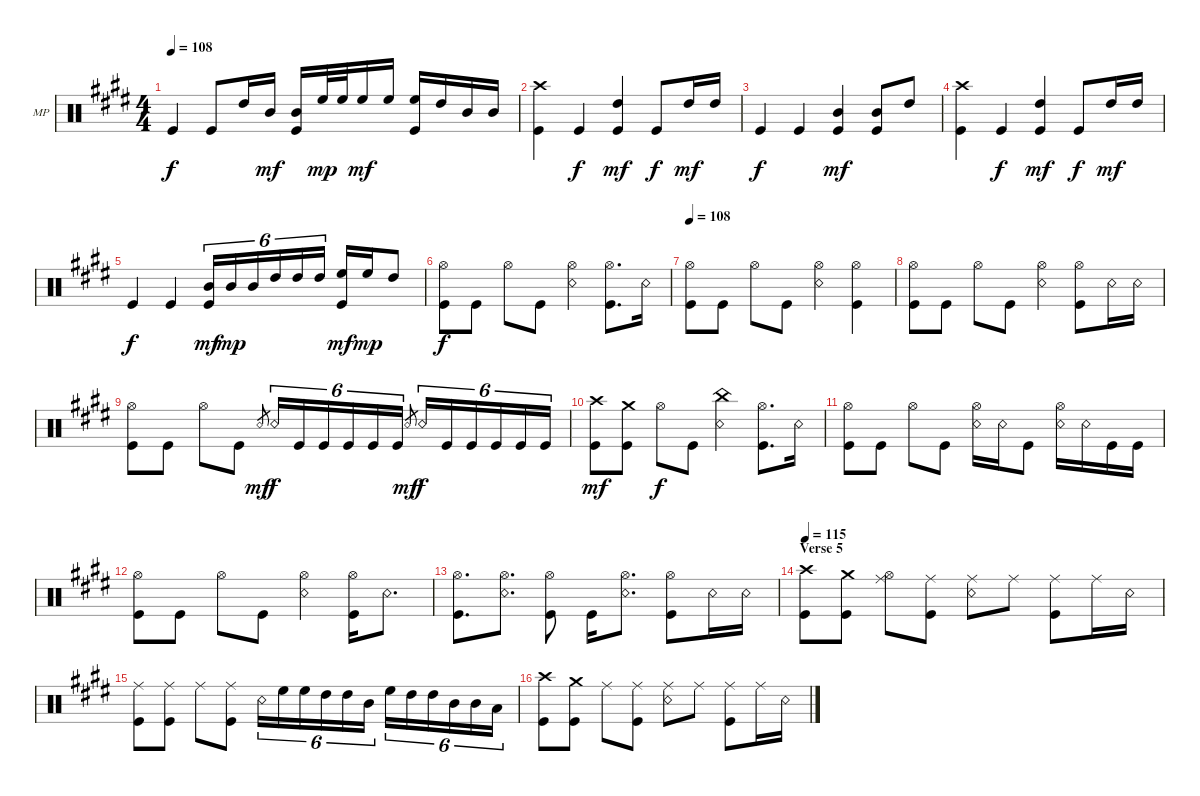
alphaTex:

\defaultSystemsLayout 4
\bracketExtendMode groupsimilarinstruments
\firstSystemTrackNameOrientation horizontal
\otherSystemsTrackNameOrientation horizontal
\track ("Mike Portnoy" "MP") {instrument percussion}
\staff {score}
\articulation defaults
\ts (4 4)
\tempo 108
\clef neutral
\ks e "Kick (hit)".4{dy f} "Kick (hit)".8 "High Tom (hit)".16 "Mid Tom (hit)".16{dy mf}
("Mid Tom (hit)" "Kick (hit)").16 "High Floor Tom (hit)".32{dy mp} "High Floor Tom (hit)".32 "High Floor Tom (hit)".16{dy mf} "High Floor Tom (hit)".16 ("High Floor Tom (hit)" "Kick (hit)").16 "High Tom (hit)".16 "Mid Tom (hit)".16 "Mid Tom (hit)".16 |
("Crash high (hit)" "Kick (hit)").4 "Kick (hit)".4{dy f} ("High Tom (hit)" "Kick (hit)").4{dy mf} "Kick (hit)".8{dy f} "High Tom (hit)".16{dy mf} "High Tom (hit)".16 |
"Kick (hit)".4{dy f} "Kick (hit)".4 ("Mid Tom (hit)" "Kick (hit)").4{dy mf} ("Mid Tom (hit)" "Kick (hit)").8 "High Tom (hit)".8 |
("Crash high (hit)" "Kick (hit)").4 "Kick (hit)".4{dy f} ("High Tom (hit)" "Kick (hit)").4{dy mf} "Kick (hit)".8{dy f} "High Tom (hit)".16{dy mf} "High Tom (hit)".16 |
"Kick (hit)".4{dy f} "Kick (hit)".4 ("Mid Tom (hit)" "Kick (hit)").16{tu (6 4) dy mf} "Mid Tom (hit)".16{tu (6 4) dy mp} "Mid Tom (hit)".16{tu (6 4)} "High Tom (hit)".16{tu (6 4)} "High Tom (hit)".16{tu (6 4)} "High Tom (hit)".16{tu (6 4)} ("High Floor Tom (hit)" "Kick (hit)").16{dy mf} "High Floor Tom (hit)".16{dy mp} "High Tom (hit)".8 |
("Kick (hit)" "Hi-Hat (open)").8{dy f} "Kick (hit)".8 "Hi-Hat (open)".8 "Kick (hit)".8 ("Hi-Hat (open)" "Snare (rim shot)").4 ("Hi-Hat (open)" "Kick (hit)").8{d} "Snare (rim shot)".16 |
\tempo 108
("Hi-Hat (open)" "Kick (hit)").8 "Kick (hit)".8 "Hi-Hat (open)".8 "Kick (hit)".8 ("Hi-Hat (open)" "Snare (rim shot)").4 ("Hi-Hat (open)" "Kick (hit)").4 |
("Hi-Hat (open)" "Kick (hit)").8 "Kick (hit)".8 "Hi-Hat (open)".8 "Kick (hit)".8 ("Hi-Hat (open)" "Snare (rim shot)").4 ("Hi-Hat (open)" "Kick (hit)").8 "Snare (rim shot)".16 "Snare (rim shot)".16 |
("Hi-Hat (open)" "Kick (hit)").8 "Kick (hit)".8 "Hi-Hat (open)".8 "Kick (hit)".8 "Snare (rim shot)".8{gr dy mf} "Snare (rim shot)".16{tu (6 4) dy f} "Kick (hit)".16{tu (6 4)} "Kick (hit)".16{tu (6 4)} "Kick (hit)".16{tu (6 4)} "Kick (hit)".16{tu (6 4)} "Kick (hit)".16{tu (6 4)} "Snare (rim shot)".8{gr dy mf} "Snare (rim shot)".16{tu (6 4) dy f} "Kick (hit)".16{tu (6 4)} "Kick (hit)".16{tu (6 4)} "Kick (hit)".16{tu (6 4)} "Kick (hit)".16{tu (6 4)} "Kick (hit)".16{tu (6 4)} |
("Crash high (hit)" "Kick (hit)").8{dy mf} ("Crash medium (hit)" "Kick (hit)").8 "Hi-Hat (open)".8{dy f} "Kick (hit)".8 ("China (hit)" "Snare (rim shot)").4 ("Hi-Hat (open)" "Kick (hit)").8{d} "Snare (rim shot)".16 |
("Hi-Hat (open)" "Kick (hit)").8 "Kick (hit)".8 "Hi-Hat (open)".8 "Kick (hit)".8 ("Hi-Hat (open)" "Snare (rim shot)").16 "Snare (rim shot)".16 "Kick (hit)".8 ("Hi-Hat (open)" "Snare (rim shot)").16 "Snare (rim shot)".16 "Kick (hit)".16 "Kick (hit)".16 |
("Hi-Hat (open)" "Kick (hit)").8 "Kick (hit)".8 "Hi-Hat (open)".8 "Kick (hit)".8 ("Hi-Hat (open)" "Snare (rim shot)").4 ("Hi-Hat (open)" "Kick (hit)").16 "Snare (rim shot)".8{d} |
("Hi-Hat (open)" "Kick (hit)").8{d} ("Hi-Hat (open)" "Snare (rim shot)").8{d} ("Hi-Hat (open)" "Kick (hit)").8 "Kick (hit)".16 ("Hi-Hat (open)" "Snare (rim shot)").8{d} ("Hi-Hat (open)" "Kick (hit)").8 "Snare (rim shot)".16 "Snare (rim shot)".16 |
\section ("" "Verse 5")
\tempo 115
("Crash high (hit)" "Kick (hit)").8 ("Crash medium (hit)" "Kick (hit)").8 ("Ride (middle)" "Hi-Hat (open)").8 ("Ride (middle)" "Kick (hit)").8 ("Ride (middle)" "Snare (rim shot)").8 "Ride (middle)".8 ("Ride (middle)" "Kick (hit)").8 "Ride (middle)".16 "Snare (rim shot)".16 |
("Ride (middle)" "Kick (hit)").8 ("Ride (middle)" "Kick (hit)").8 "Ride (middle)".8 ("Ride (middle)" "Kick (hit)").8 "Snare (rim shot)".16{tu (6 4)} "High Floor Tom (hit)".16{tu (6 4)} "High Floor Tom (hit)".16{tu (6 4)} "High Tom (hit)".16{tu (6 4)} "High Tom (hit)".16{tu (6 4)} "Mid Tom (hit)".16{tu (6 4)} "High Floor Tom (hit)".16{tu (6 4)} "High Tom (hit)".16{tu (6 4)} "High Tom (hit)".16{tu (6 4)} "Mid Tom (hit)".16{tu (6 4)} "Mid Tom (hit)".16{tu (6 4)} "Low Tom (hit)".16{tu (6 4)} |
("Crash high (hit)" "Kick (hit)").8 ("Crash medium (hit)" "Kick (hit)").8 "Ride (middle)".8 ("Ride (middle)" "Kick (hit)").8 ("Ride (middle)" "Snare (rim shot)").8 "Ride (middle)".8 ("Ride (middle)" "Kick (hit)").8 "Ride (middle)".16 "Snare (rim shot)".16
